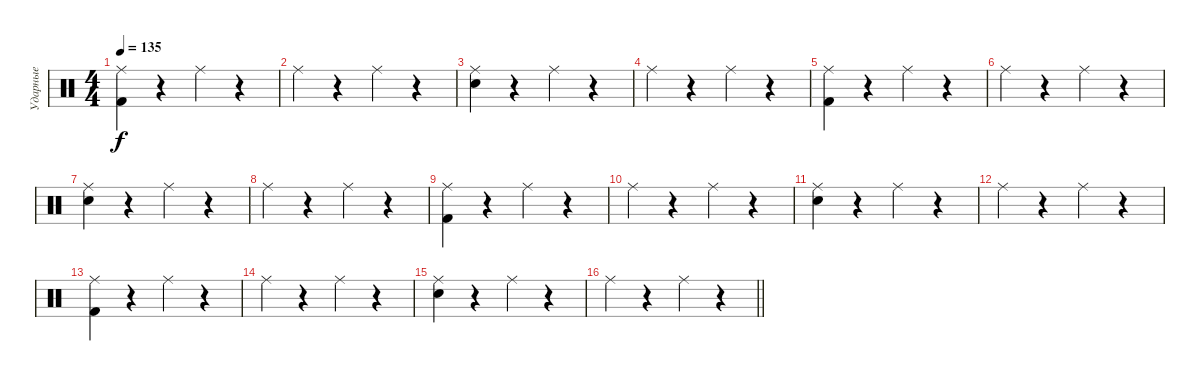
\track ("Ударные" "Ударные") {instrument percussion}
\staff {score}
\articulation defaults
\ts (4 4)
\tempo 135
\clef neutral
\ks c
("Ride (middle)" "Kick (hit) 2").4{dy f} r.4 "Ride (middle)".4 r.4 |
"Ride (middle)".4 r.4 "Ride (middle)".4 r.4 |
("Ride (middle)" "Electric Snare (hit)").4 r.4 "Ride (middle)".4 r.4 |
"Ride (middle)".4 r.4 "Ride (middle)".4 r.4 |
("Ride (middle)" "Kick (hit) 2").4 r.4 "Ride (middle)".4 r.4 |
"Ride (middle)".4 r.4 "Ride (middle)".4 r.4 |
("Ride (middle)" "Electric Snare (hit)").4 r.4 "Ride (middle)".4 r.4 |
"Ride (middle)".4 r.4 "Ride (middle)".4 r.4 |
("Ride (middle)" "Kick (hit) 2").4 r.4 "Ride (middle)".4 r.4 |
"Ride (middle)".4 r.4 "Ride (middle)".4 r.4 |
("Ride (middle)" "Electric Snare (hit)").4 r.4 "Ride (middle)".4 r.4 |
"Ride (middle)".4 r.4 "Ride (middle)".4 r.4 |
("Ride (middle)" "Kick (hit) 2").4 r.4 "Ride (middle)".4 r.4 |
"Ride (middle)".4 r.4 "Ride (middle)".4 r.4 |
("Ride (middle)" "Electric Snare (hit)").4 r.4 "Ride (middle)".4 r.4 |
\barLineRight lightlight "Ride (middle)".4
r.4 "Ride (middle)".4 r.4
